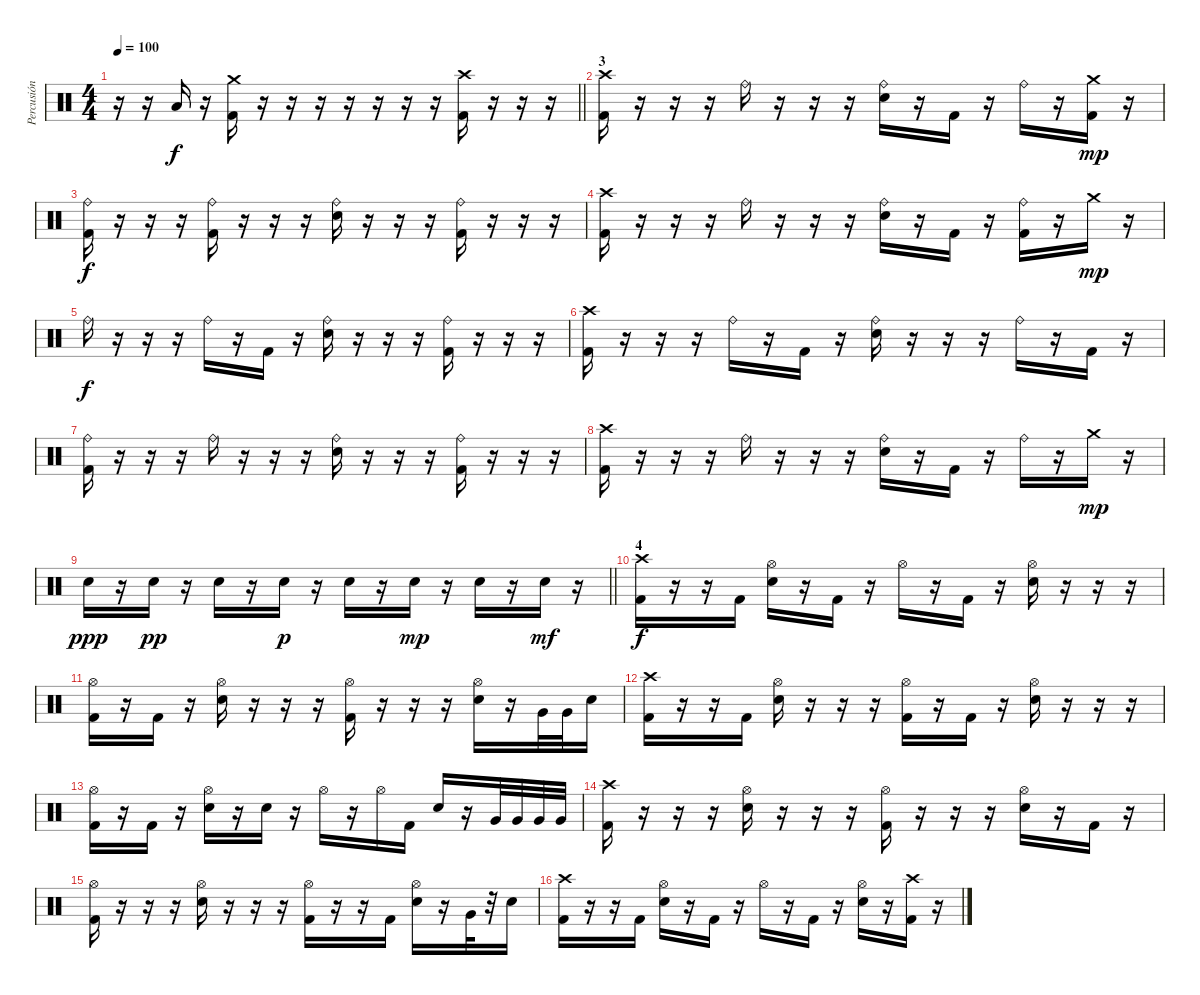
\track ("Percusión" "Percusión") {instrument percussion}
\staff {score}
\articulation defaults
\ts (4 4)
\tempo 100
\clef neutral
\barLineRight lightlight
\ks c
r.16{dy f} r.16 "Low Tom (hit)".16 r.16 ("Crash medium (hit)" "Kick (hit) 2").16 r.16 r.16 r.16 r.16 r.16 r.16 r.16 ("Crash high (hit)" "Kick (hit) 2").16 r.16 r.16 r.16 |
\section ("" "3")
("Crash high (hit)" "Kick (hit) 2").16 r.16 r.16 r.16 "Ride (bell)".16 r.16 r.16 r.16 ("Ride (bell)" "Electric Snare (hit)").16 r.16 "Kick (hit) 2".16 r.16 "Ride (bell)".16 r.16 ("Crash medium (hit)" "Kick (hit) 2").16{dy mp} r.16 |
("Ride (bell)" "Kick (hit) 2").16{dy f} r.16 r.16 r.16 ("Ride (bell)" "Kick (hit) 2").16 r.16 r.16 r.16 ("Ride (bell)" "Electric Snare (hit)").16 r.16 r.16 r.16 ("Ride (bell)" "Kick (hit) 2").16 r.16 r.16 r.16 |
("Crash high (hit)" "Kick (hit) 2").16 r.16 r.16 r.16 "Ride (bell)".16 r.16 r.16 r.16 ("Ride (bell)" "Electric Snare (hit)").16 r.16 "Kick (hit) 2".16 r.16 ("Ride (bell)" "Kick (hit) 2").16 r.16 "Crash medium (hit)".16{dy mp} r.16 |
"Ride (bell)".16{dy f} r.16 r.16 r.16 "Ride (bell)".16 r.16 "Kick (hit) 2".16 r.16 ("Ride (bell)" "Electric Snare (hit)").16 r.16 r.16 r.16 ("Ride (bell)" "Kick (hit) 2").16 r.16 r.16 r.16 |
("Crash high (hit)" "Kick (hit) 2").16 r.16 r.16 r.16 "Ride (bell)".16 r.16 "Kick (hit) 2".16 r.16 ("Ride (bell)" "Electric Snare (hit)").16 r.16 r.16 r.16 "Ride (bell)".16 r.16 "Kick (hit) 2".16 r.16 |
("Ride (bell)" "Kick (hit) 2").16 r.16 r.16 r.16 "Ride (bell)".16 r.16 r.16 r.16 ("Ride (bell)" "Electric Snare (hit)").16 r.16 r.16 r.16 ("Ride (bell)" "Kick (hit) 2").16 r.16 r.16 r.16 |
("Crash high (hit)" "Kick (hit) 2").16 r.16 r.16 r.16 "Ride (bell)".16 r.16 r.16 r.16 ("Ride (bell)" "Electric Snare (hit)").16 r.16 "Kick (hit) 2".16 r.16 "Ride (bell)".16 r.16 "Crash medium (hit)".16{dy mp} r.16 |
\barLineRight lightlight "Electric Snare (hit)".16{dy ppp}
r.16 "Electric Snare (hit)".16{dy pp} r.16 "Electric Snare (hit)".16 r.16 "Electric Snare (hit)".16{dy p} r.16 "Electric Snare (hit)".16 r.16 "Electric Snare (hit)".16{dy mp} r.16 "Electric Snare (hit)".16 r.16 "Electric Snare (hit)".16{dy mf} r.16 |
\section ("" "4")
("Crash high (hit)" "Kick (hit) 2").16{dy f} r.16 r.16 "Kick (hit) 2".16 ("Hi-Hat (open)" "Electric Snare (hit)").16 r.16 "Kick (hit) 2".16 r.16 "Hi-Hat (open)".16 r.16 "Kick (hit) 2".16 r.16 ("Hi-Hat (open)" "Electric Snare (hit)").16 r.16 r.16 r.16 |
("Hi-Hat (open)" "Kick (hit) 2").16 r.16 "Kick (hit) 2".16 r.16 ("Hi-Hat (open)" "Electric Snare (hit)").16 r.16 r.16 r.16 ("Hi-Hat (open)" "Kick (hit) 2").16 r.16 r.16 r.16 ("Hi-Hat (open)" "Electric Snare (hit)").16 r.16 "Very Low Tom (hit)".32 "Very Low Tom (hit)".32 "Electric Snare (hit)".16 |
("Crash high (hit)" "Kick (hit) 2").16 r.16 r.16 "Kick (hit) 2".16 ("Hi-Hat (open)" "Electric Snare (hit)").16 r.16 r.16 r.16 ("Hi-Hat (open)" "Kick (hit) 2").16 r.16 "Kick (hit) 2".16 r.16 ("Hi-Hat (open)" "Electric Snare (hit)").16 r.16 r.16 r.16 |
("Hi-Hat (open)" "Kick (hit) 2").16 r.16 "Kick (hit) 2".16 r.16 ("Hi-Hat (open)" "Electric Snare (hit)").16 r.16 "Electric Snare (hit)".16 r.16 "Hi-Hat (open)".16 r.16 "Hi-Hat (open)".16 "Kick (hit) 2".16 "Electric Snare (hit)".16 r.16 "Very Low Tom (hit)".32 "Very Low Tom (hit)".32 "Very Low Tom (hit)".32 "Very Low Tom (hit)".32 |
("Crash high (hit)" "Kick (hit) 2").16 r.16 r.16 r.16 ("Hi-Hat (open)" "Electric Snare (hit)").16 r.16 r.16 r.16 ("Hi-Hat (open)" "Kick (hit) 2").16 r.16 r.16 r.16 ("Hi-Hat (open)" "Electric Snare (hit)").16 r.16 "Kick (hit) 2".16 r.16 |
("Hi-Hat (open)" "Kick (hit) 2").16 r.16 r.16 r.16 ("Hi-Hat (open)" "Electric Snare (hit)").16 r.16 r.16 r.16 ("Hi-Hat (open)" "Kick (hit) 2").16 r.16 r.16 "Kick (hit) 2".16 ("Hi-Hat (open)" "Electric Snare (hit)").16 r.16 "Very Low Tom (hit)".32 r.32 "Electric Snare (hit)".16 |
("Crash high (hit)" "Kick (hit) 2").16 r.16 r.16 "Kick (hit) 2".16 ("Hi-Hat (open)" "Electric Snare (hit)").16 r.16 "Kick (hit) 2".16 r.16 "Hi-Hat (open)".16 r.16 "Kick (hit) 2".16 r.16 ("Hi-Hat (open)" "Electric Snare (hit)").16 r.16 ("Crash high (hit)" "Kick (hit) 2").16 r.16
